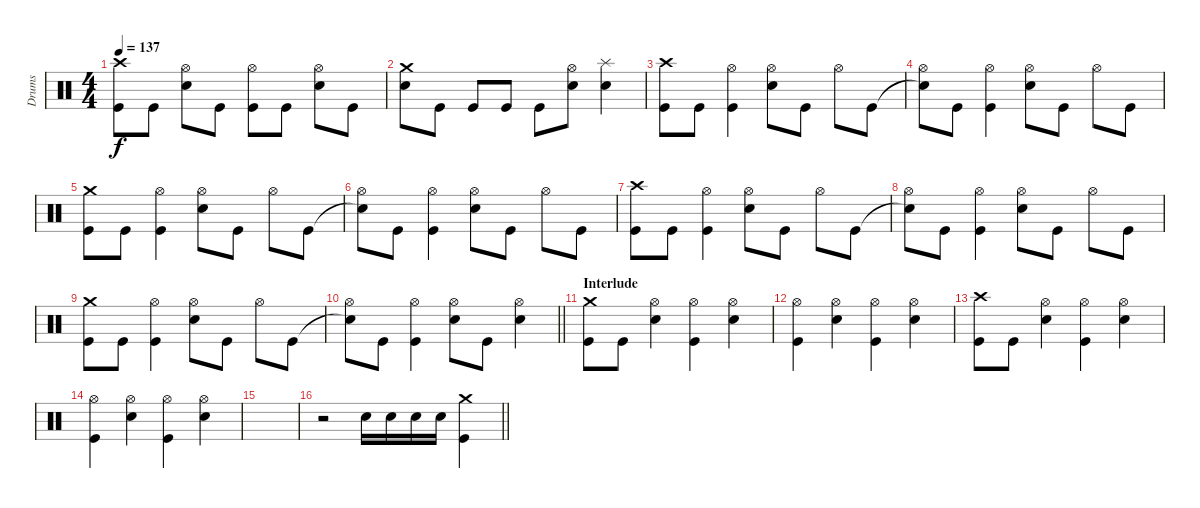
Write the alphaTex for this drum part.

\track ("Drums" "Drums") {instrument percussion}
\staff {score}
\articulation defaults
\ts (4 4)
\tempo 137
\clef neutral
\ks c
("Kick (hit)" "Crash high (hit)").8{dy f} "Kick (hit)".8 ("Snare (hit) 2" "Hi-Hat (open)").8 "Kick (hit)".8 ("Kick (hit)" "Hi-Hat (open)").8 "Kick (hit)".8 ("Snare (hit) 2" "Hi-Hat (open)").8 "Kick (hit)".8 |
("Snare (hit) 2" "Crash medium (hit)").8 "Kick (hit)".8 "Kick (hit)".8 "Kick (hit)".8 "Kick (hit)".8 ("Snare (hit) 2" "Hi-Hat (open)").8 ("Snare (hit) 2" "Splash (hit)").4 |
("Kick (hit)" "Crash high (hit)").8 "Kick (hit)".8 ("Kick (hit)" "Hi-Hat (open)").4 ("Snare (hit) 2" "Hi-Hat (open)").8 "Kick (hit)".8 "Hi-Hat (open)".8 "Kick (hit)".8 |
("Snare (hit)"{t} "Hi-Hat (open)").8 "Kick (hit)".8 ("Kick (hit)" "Hi-Hat (open)").4 ("Snare (hit) 2" "Hi-Hat (open)").8 "Kick (hit)".8 "Hi-Hat (open)".8 "Kick (hit)".8 |
("Kick (hit)" "Crash medium (hit)").8 "Kick (hit)".8 ("Kick (hit)" "Hi-Hat (open)").4 ("Snare (hit) 2" "Hi-Hat (open)").8 "Kick (hit)".8 "Hi-Hat (open)".8 "Kick (hit)".8 |
("Snare (hit)"{t} "Hi-Hat (open)").8 "Kick (hit)".8 ("Kick (hit)" "Hi-Hat (open)").4 ("Snare (hit) 2" "Hi-Hat (open)").8 "Kick (hit)".8 "Hi-Hat (open)".8 "Kick (hit)".8 |
("Kick (hit)" "Crash high (hit)").8 "Kick (hit)".8 ("Kick (hit)" "Hi-Hat (open)").4 ("Snare (hit) 2" "Hi-Hat (open)").8 "Kick (hit)".8 "Hi-Hat (open)".8 "Kick (hit)".8 |
("Snare (hit)"{t} "Hi-Hat (open)").8 "Kick (hit)".8 ("Kick (hit)" "Hi-Hat (open)").4 ("Snare (hit) 2" "Hi-Hat (open)").8 "Kick (hit)".8 "Hi-Hat (open)".8 "Kick (hit)".8 |
("Kick (hit)" "Crash medium (hit)").8 "Kick (hit)".8 ("Kick (hit)" "Hi-Hat (open)").4 ("Snare (hit) 2" "Hi-Hat (open)").8 "Kick (hit)".8 "Hi-Hat (open)".8 "Kick (hit)".8 |
\barLineRight lightlight
("Snare (hit)"{t} "Hi-Hat (open)").8 "Kick (hit)".8 ("Kick (hit)" "Hi-Hat (open)").4 ("Snare (hit) 2" "Hi-Hat (open)").8 "Kick (hit)".8 ("Snare (hit) 2" "Hi-Hat (open)").4 |
\section ("" "Interlude")
("Kick (hit)" "Crash medium (hit)").8 "Kick (hit)".8 ("Snare (hit) 2" "Hi-Hat (open)").4 ("Kick (hit)" "Hi-Hat (open)").4 ("Snare (hit) 2" "Hi-Hat (open)").4 |
("Kick (hit)" "Hi-Hat (open)").4 ("Snare (hit) 2" "Hi-Hat (open)").4 ("Kick (hit)" "Hi-Hat (open)").4 ("Snare (hit) 2" "Hi-Hat (open)").4 |
("Kick (hit)" "Crash high (hit)").8 "Kick (hit)".8 ("Snare (hit) 2" "Hi-Hat (open)").4 ("Kick (hit)" "Hi-Hat (open)").4 ("Snare (hit) 2" "Hi-Hat (open)").4 |
("Kick (hit)" "Hi-Hat (open)").4 ("Snare (hit) 2" "Hi-Hat (open)").4 ("Kick (hit)" "Hi-Hat (open)").4 ("Snare (hit) 2" "Hi-Hat (open)").4 |
|
\barLineRight lightlight
r.2 "Snare (hit) 2".16 "Snare (hit) 2".16 "Snare (hit) 2".16 "Snare (hit) 2".16 ("Kick (hit)" "Crash medium (hit)").4
